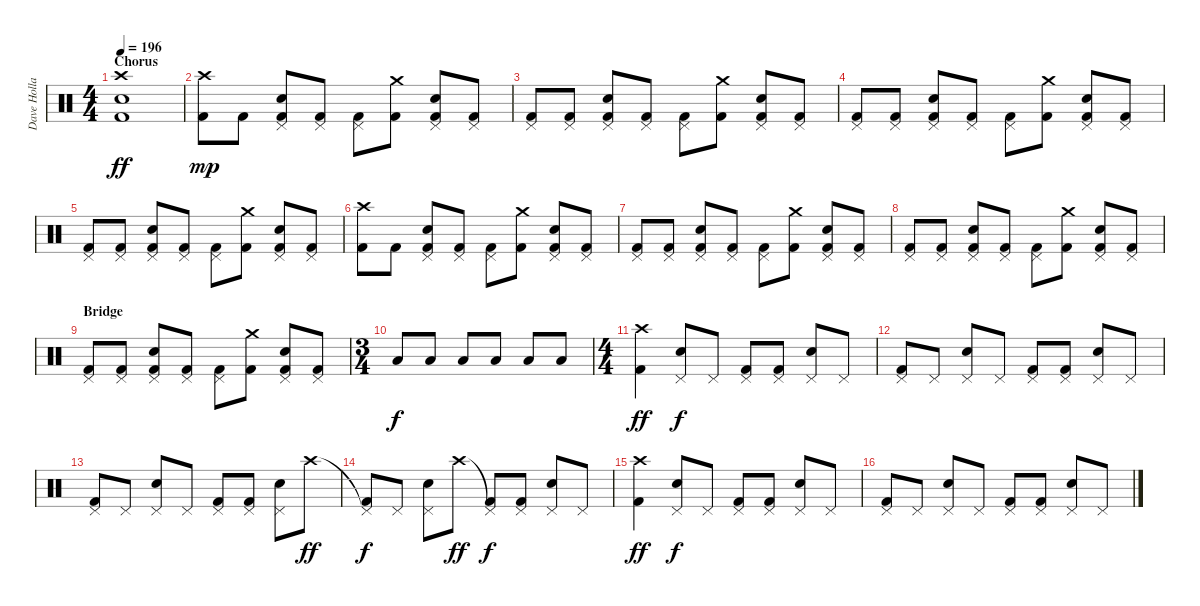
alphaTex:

\track ("Dave Holland" "Dave Holla") {instrument percussion}
\staff {score}
\articulation defaults
\ts (4 4)
\section ("" "Chorus")
\tempo 196
\clef neutral
\ks c
("Crash high (hit)" "Electric Snare (hit)" "Kick (hit) 2").1{dy ff} |
("Crash high (hit)" "Kick (hit) 2").8{dy mp} "Kick (hit) 2".8 ("Pedal Hi-Hat (hit)" "Snare (hit) 2" "Kick (hit) 2").8 ("Pedal Hi-Hat (hit)" "Kick (hit) 2").8 ("Pedal Hi-Hat (hit)" "Kick (hit) 2").8 ("Crash medium (hit)" "Kick (hit) 2").8 ("Pedal Hi-Hat (hit)" "Snare (hit) 2" "Kick (hit) 2").8 ("Pedal Hi-Hat (hit)" "Kick (hit) 2").8 |
("Pedal Hi-Hat (hit)" "Kick (hit) 2").8 ("Pedal Hi-Hat (hit)" "Kick (hit) 2").8 ("Pedal Hi-Hat (hit)" "Snare (hit) 2" "Kick (hit) 2").8 ("Pedal Hi-Hat (hit)" "Kick (hit) 2").8 ("Pedal Hi-Hat (hit)" "Kick (hit) 2").8 ("Crash medium (hit)" "Kick (hit) 2").8 ("Pedal Hi-Hat (hit)" "Snare (hit) 2" "Kick (hit) 2").8 ("Pedal Hi-Hat (hit)" "Kick (hit) 2").8 |
("Pedal Hi-Hat (hit)" "Kick (hit) 2").8 ("Pedal Hi-Hat (hit)" "Kick (hit) 2").8 ("Pedal Hi-Hat (hit)" "Snare (hit) 2" "Kick (hit) 2").8 ("Pedal Hi-Hat (hit)" "Kick (hit) 2").8 ("Pedal Hi-Hat (hit)" "Kick (hit) 2").8 ("Crash medium (hit)" "Kick (hit) 2").8 ("Pedal Hi-Hat (hit)" "Snare (hit) 2" "Kick (hit) 2").8 ("Pedal Hi-Hat (hit)" "Kick (hit) 2").8 |
("Pedal Hi-Hat (hit)" "Kick (hit) 2").8 ("Pedal Hi-Hat (hit)" "Kick (hit) 2").8 ("Pedal Hi-Hat (hit)" "Snare (hit) 2" "Kick (hit) 2").8 ("Pedal Hi-Hat (hit)" "Kick (hit) 2").8 ("Pedal Hi-Hat (hit)" "Kick (hit) 2").8 ("Crash medium (hit)" "Kick (hit) 2").8 ("Pedal Hi-Hat (hit)" "Snare (hit) 2" "Kick (hit) 2").8 ("Pedal Hi-Hat (hit)" "Kick (hit) 2").8 |
("Crash high (hit)" "Kick (hit) 2").8 "Kick (hit) 2".8 ("Pedal Hi-Hat (hit)" "Snare (hit) 2" "Kick (hit) 2").8 ("Pedal Hi-Hat (hit)" "Kick (hit) 2").8 ("Pedal Hi-Hat (hit)" "Kick (hit) 2").8 ("Crash medium (hit)" "Kick (hit) 2").8 ("Pedal Hi-Hat (hit)" "Snare (hit) 2" "Kick (hit) 2").8 ("Pedal Hi-Hat (hit)" "Kick (hit) 2").8 |
("Pedal Hi-Hat (hit)" "Kick (hit) 2").8 ("Pedal Hi-Hat (hit)" "Kick (hit) 2").8 ("Pedal Hi-Hat (hit)" "Snare (hit) 2" "Kick (hit) 2").8 ("Pedal Hi-Hat (hit)" "Kick (hit) 2").8 ("Pedal Hi-Hat (hit)" "Kick (hit) 2").8 ("Crash medium (hit)" "Kick (hit) 2").8 ("Pedal Hi-Hat (hit)" "Snare (hit) 2" "Kick (hit) 2").8 ("Pedal Hi-Hat (hit)" "Kick (hit) 2").8 |
("Pedal Hi-Hat (hit)" "Kick (hit) 2").8 ("Pedal Hi-Hat (hit)" "Kick (hit) 2").8 ("Pedal Hi-Hat (hit)" "Snare (hit) 2" "Kick (hit) 2").8 ("Pedal Hi-Hat (hit)" "Kick (hit) 2").8 ("Pedal Hi-Hat (hit)" "Kick (hit) 2").8 ("Crash medium (hit)" "Kick (hit) 2").8 ("Pedal Hi-Hat (hit)" "Snare (hit) 2" "Kick (hit) 2").8 ("Pedal Hi-Hat (hit)" "Kick (hit) 2").8 |
\section ("" "Bridge")
("Pedal Hi-Hat (hit)" "Kick (hit) 2").8 ("Pedal Hi-Hat (hit)" "Kick (hit) 2").8 ("Pedal Hi-Hat (hit)" "Snare (hit) 2" "Kick (hit) 2").8 ("Pedal Hi-Hat (hit)" "Kick (hit) 2").8 ("Pedal Hi-Hat (hit)" "Kick (hit) 2").8 ("Crash medium (hit)" "Kick (hit) 2").8 ("Pedal Hi-Hat (hit)" "Snare (hit) 2" "Kick (hit) 2").8 ("Pedal Hi-Hat (hit)" "Kick (hit) 2").8 |
\ts (3 4)
"Low Floor Tom (hit)".8{dy f} "Low Floor Tom (hit)".8 "Low Tom (hit)".8 "Low Tom (hit)".8 "Low Tom (hit)".8 "Low Tom (hit)".8 |
\ts (4 4)
("Crash high (hit)" "Kick (hit) 2").4{dy ff} ("Pedal Hi-Hat (hit)" "Snare (hit) 2").8{dy f} "Pedal Hi-Hat (hit)".8 ("Pedal Hi-Hat (hit)" "Kick (hit) 2").8 ("Pedal Hi-Hat (hit)" "Kick (hit) 2").8 ("Pedal Hi-Hat (hit)" "Snare (hit) 2").8 "Pedal Hi-Hat (hit)".8 |
("Pedal Hi-Hat (hit)" "Kick (hit) 2").8 "Pedal Hi-Hat (hit)".8 ("Pedal Hi-Hat (hit)" "Snare (hit) 2").8 "Pedal Hi-Hat (hit)".8 ("Pedal Hi-Hat (hit)" "Kick (hit) 2").8 ("Pedal Hi-Hat (hit)" "Kick (hit) 2").8 ("Pedal Hi-Hat (hit)" "Snare (hit) 2").8 "Pedal Hi-Hat (hit)".8 |
("Pedal Hi-Hat (hit)" "Kick (hit) 2").8 "Pedal Hi-Hat (hit)".8 ("Pedal Hi-Hat (hit)" "Snare (hit) 2").8 "Pedal Hi-Hat (hit)".8 ("Pedal Hi-Hat (hit)" "Kick (hit) 2").8 ("Pedal Hi-Hat (hit)" "Kick (hit) 2").8 ("Pedal Hi-Hat (hit)" "Snare (hit) 2").8 "Crash high (hit)".8{dy ff} |
("Pedal Hi-Hat (hit)"{t} "Kick (hit) 2").8{dy f} "Pedal Hi-Hat (hit)".8 ("Pedal Hi-Hat (hit)" "Snare (hit) 2").8 "Crash high (hit)".8{dy ff} ("Pedal Hi-Hat (hit)"{t} "Kick (hit) 2").8{dy f} ("Pedal Hi-Hat (hit)" "Kick (hit) 2").8 ("Pedal Hi-Hat (hit)" "Snare (hit) 2").8 "Pedal Hi-Hat (hit)".8 |
("Crash high (hit)" "Kick (hit) 2").4{dy ff} ("Pedal Hi-Hat (hit)" "Snare (hit) 2").8{dy f} "Pedal Hi-Hat (hit)".8 ("Pedal Hi-Hat (hit)" "Kick (hit) 2").8 ("Pedal Hi-Hat (hit)" "Kick (hit) 2").8 ("Pedal Hi-Hat (hit)" "Snare (hit) 2").8 "Pedal Hi-Hat (hit)".8 |
("Pedal Hi-Hat (hit)" "Kick (hit) 2").8 "Pedal Hi-Hat (hit)".8 ("Pedal Hi-Hat (hit)" "Snare (hit) 2").8 "Pedal Hi-Hat (hit)".8 ("Pedal Hi-Hat (hit)" "Kick (hit) 2").8 ("Pedal Hi-Hat (hit)" "Kick (hit) 2").8 ("Pedal Hi-Hat (hit)" "Snare (hit) 2").8 "Pedal Hi-Hat (hit)".8
